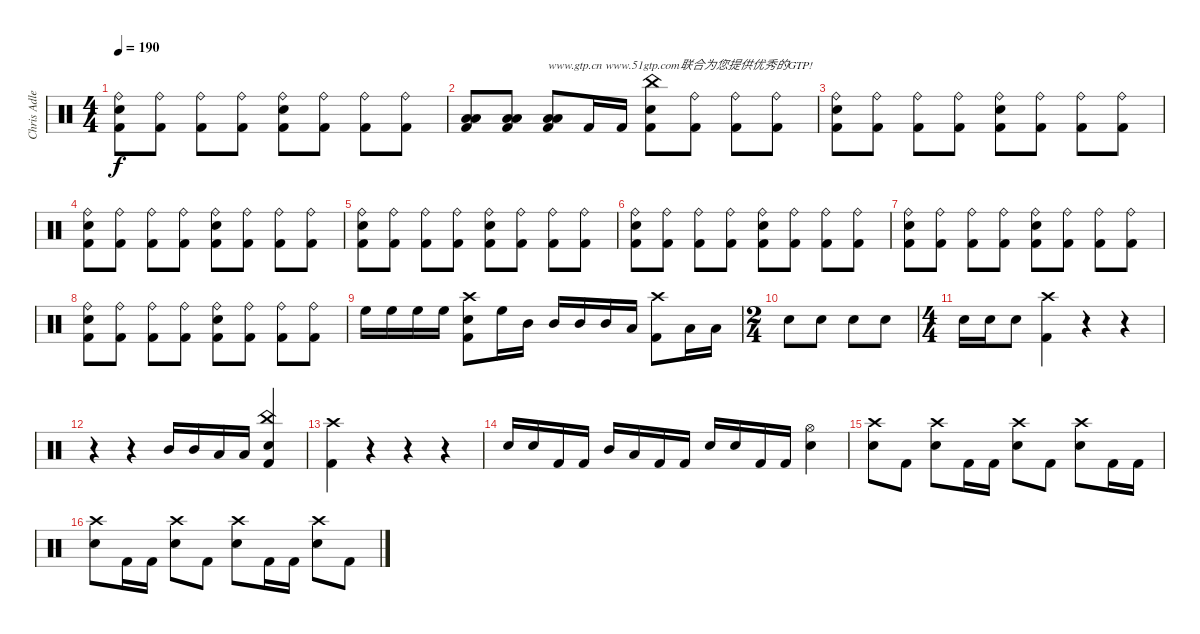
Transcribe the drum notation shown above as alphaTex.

\track ("Chris Adler" "Chris Adle") {instrument percussion}
\staff {score}
\articulation defaults
\ts (4 4)
\tempo 190
\clef neutral
\ks c
("Ride (bell)" "Electric Snare (hit)" "Kick (hit) 2").8{dy f} ("Ride (bell)" "Kick (hit) 2").8 ("Ride (bell)" "Kick (hit) 2").8 ("Ride (bell)" "Kick (hit) 2").8 ("Ride (bell)" "Electric Snare (hit)" "Kick (hit) 2").8 ("Ride (bell)" "Kick (hit) 2").8 ("Ride (bell)" "Kick (hit) 2").8 ("Ride (bell)" "Kick (hit) 2").8 |
("Kick (hit) 2" "Low Tom (hit)" "Low Floor Tom (hit)").8 ("Kick (hit) 2" "Low Tom (hit)" "Low Floor Tom (hit)").8 ("Kick (hit) 2" "Low Tom (hit)" "Low Floor Tom (hit)").8{txt "www.gtp.cn www.51gtp.com联合为您提供优秀的GTP!"} "Kick (hit) 2".16 "Kick (hit) 2".16 ("China (hit)" "Electric Snare (hit)" "Kick (hit) 2").8 ("Ride (bell)" "Kick (hit) 2").8 ("Ride (bell)" "Kick (hit) 2").8 ("Ride (bell)" "Kick (hit) 2").8 |
("Ride (bell)" "Electric Snare (hit)" "Kick (hit) 2").8 ("Ride (bell)" "Kick (hit) 2").8 ("Ride (bell)" "Kick (hit) 2").8 ("Ride (bell)" "Kick (hit) 2").8 ("Ride (bell)" "Electric Snare (hit)" "Kick (hit) 2").8 ("Ride (bell)" "Kick (hit) 2").8 ("Ride (bell)" "Kick (hit) 2").8 ("Ride (bell)" "Kick (hit) 2").8 |
("Ride (bell)" "Electric Snare (hit)" "Kick (hit) 2").8 ("Ride (bell)" "Kick (hit) 2").8 ("Ride (bell)" "Kick (hit) 2").8 ("Ride (bell)" "Kick (hit) 2").8 ("Ride (bell)" "Electric Snare (hit)" "Kick (hit) 2").8 ("Ride (bell)" "Kick (hit) 2").8 ("Ride (bell)" "Kick (hit) 2").8 ("Ride (bell)" "Kick (hit) 2").8 |
("Ride (bell)" "Electric Snare (hit)" "Kick (hit) 2").8 ("Ride (bell)" "Kick (hit) 2").8 ("Ride (bell)" "Kick (hit) 2").8 ("Ride (bell)" "Kick (hit) 2").8 ("Ride (bell)" "Electric Snare (hit)" "Kick (hit) 2").8 ("Ride (bell)" "Kick (hit) 2").8 ("Ride (bell)" "Kick (hit) 2").8 ("Ride (bell)" "Kick (hit) 2").8 |
("Ride (bell)" "Electric Snare (hit)" "Kick (hit) 2").8 ("Ride (bell)" "Kick (hit) 2").8 ("Ride (bell)" "Kick (hit) 2").8 ("Ride (bell)" "Kick (hit) 2").8 ("Ride (bell)" "Electric Snare (hit)" "Kick (hit) 2").8 ("Ride (bell)" "Kick (hit) 2").8 ("Ride (bell)" "Kick (hit) 2").8 ("Ride (bell)" "Kick (hit) 2").8 |
("Ride (bell)" "Electric Snare (hit)" "Kick (hit) 2").8 ("Ride (bell)" "Kick (hit) 2").8 ("Ride (bell)" "Kick (hit) 2").8 ("Ride (bell)" "Kick (hit) 2").8 ("Ride (bell)" "Electric Snare (hit)" "Kick (hit) 2").8 ("Ride (bell)" "Kick (hit) 2").8 ("Ride (bell)" "Kick (hit) 2").8 ("Ride (bell)" "Kick (hit) 2").8 |
("Ride (bell)" "Electric Snare (hit)" "Kick (hit) 2").8 ("Ride (bell)" "Kick (hit) 2").8 ("Ride (bell)" "Kick (hit) 2").8 ("Ride (bell)" "Kick (hit) 2").8 ("Ride (bell)" "Electric Snare (hit)" "Kick (hit) 2").8 ("Ride (bell)" "Kick (hit) 2").8 ("Ride (bell)" "Kick (hit) 2").8 ("Ride (bell)" "Kick (hit) 2").8 |
"High Floor Tom (hit)".16 "High Floor Tom (hit)".16 "High Floor Tom (hit)".16 "High Floor Tom (hit)".16 ("Crash high (hit)" "Snare (hit) 2" "Kick (hit) 2").8 "High Floor Tom (hit)".16 "Mid Tom (hit)".16 "Mid Tom (hit)".16 "Mid Tom (hit)".16 "Mid Tom (hit)".16 "Low Tom (hit)".16 ("Crash high (hit)" "Kick (hit) 2").8 "Low Floor Tom (hit)".16 "Low Floor Tom (hit)".16 |
\ts (2 4)
"Snare (hit) 2".8 "Snare (hit) 2".8 "Snare (hit) 2".8 "Snare (hit) 2".8 |
\ts (4 4)
"Snare (hit) 2".16 "Snare (hit) 2".16 "Snare (hit) 2".8 ("Crash high (hit)" "Kick (hit) 2").4 r.4 r.4 |
r.4 r.4 "Mid Tom (hit)".16 "Mid Tom (hit)".16 "Low Floor Tom (hit)".16 "Low Floor Tom (hit)".16 ("China (hit)" "Snare (hit) 2" "Kick (hit) 2").4 |
("Crash high (hit)" "Kick (hit) 2").4 r.4 r.4 r.4 |
"Snare (hit) 2".16 "Snare (hit) 2".16 "Kick (hit) 2".16 "Kick (hit) 2".16 "Mid Tom (hit)".16 "Low Tom (hit)".16 "Kick (hit) 2".16 "Kick (hit) 2".16 "Snare (hit) 2".16 "Snare (hit) 2".16 "Kick (hit) 2".16 "Kick (hit) 2".16 ("Hi-Hat (open)" "Snare (hit) 2").4 |
("Crash high (hit)" "Electric Snare (hit)").8 "Kick (hit) 2".8 ("Crash high (hit)" "Electric Snare (hit)").8 "Kick (hit) 2".16 "Kick (hit) 2".16 ("Crash high (hit)" "Electric Snare (hit)").8 "Kick (hit) 2".8 ("Crash high (hit)" "Electric Snare (hit)").8 "Kick (hit) 2".16 "Kick (hit) 2".16 |
("Crash high (hit)" "Electric Snare (hit)").8 "Kick (hit) 2".16 "Kick (hit) 2".16 ("Crash high (hit)" "Electric Snare (hit)").8 "Kick (hit) 2".8 ("Crash high (hit)" "Electric Snare (hit)").8 "Kick (hit) 2".16 "Kick (hit) 2".16 ("Crash high (hit)" "Electric Snare (hit)").8 "Kick (hit) 2".8
